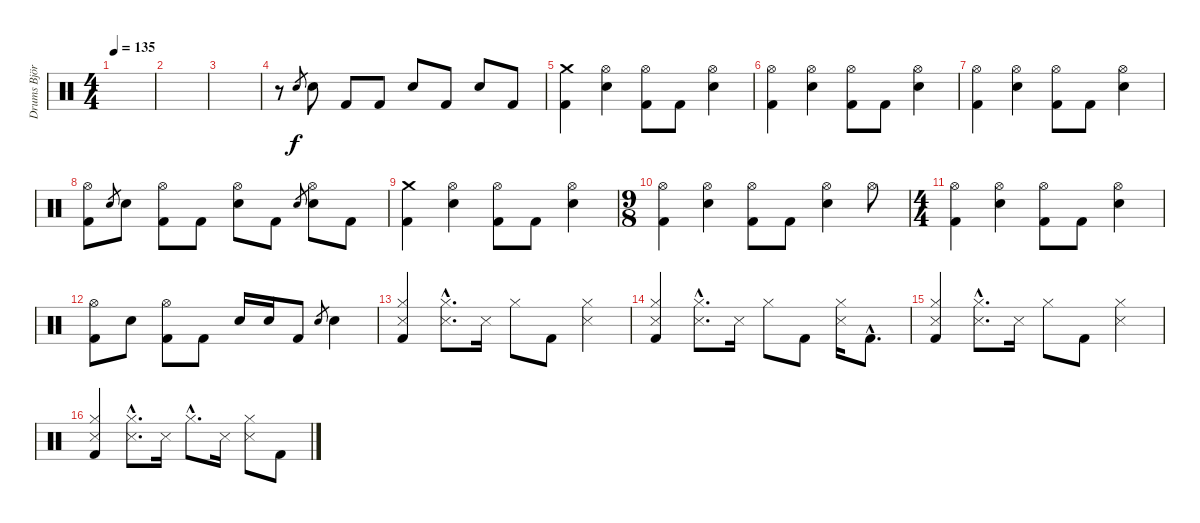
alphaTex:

\track ("Drums Björn Fryklund" "Drums Björ") {instrument percussion}
\staff {score}
\articulation defaults
\ts (4 4)
\tempo 135
\clef neutral
\ks c
|
|
|
r.8 "Electric Snare (hit)".8{gr} "Electric Snare (hit)".8 "Kick (hit) 2".8 "Kick (hit) 2".8 "Electric Snare (hit)".8 "Kick (hit) 2".8 "Electric Snare (hit)".8 "Kick (hit) 2".8 |
("Crash medium (hit)" "Kick (hit) 2").4 ("Hi-Hat (open)" "Electric Snare (hit)").4 ("Hi-Hat (open)" "Kick (hit) 2").8 "Kick (hit) 2".8 ("Hi-Hat (open)" "Electric Snare (hit)").4 |
("Hi-Hat (open)" "Kick (hit) 2").4 ("Hi-Hat (open)" "Electric Snare (hit)").4 ("Hi-Hat (open)" "Kick (hit) 2").8 "Kick (hit) 2".8 ("Hi-Hat (open)" "Electric Snare (hit)").4 |
("Hi-Hat (open)" "Kick (hit) 2").4 ("Hi-Hat (open)" "Electric Snare (hit)").4 ("Hi-Hat (open)" "Kick (hit) 2").8 "Kick (hit) 2".8 ("Hi-Hat (open)" "Electric Snare (hit)").4 |
("Hi-Hat (open)" "Kick (hit) 2").8 "Electric Snare (hit)".8{gr} "Electric Snare (hit)".8 ("Hi-Hat (open)" "Kick (hit) 2").8 "Kick (hit) 2".8 ("Hi-Hat (open)" "Electric Snare (hit)").8 "Kick (hit) 2".8 "Electric Snare (hit)".8{gr} ("Hi-Hat (open)" "Electric Snare (hit)").8 "Kick (hit) 2".8 |
("Crash medium (hit)" "Kick (hit) 2").4 ("Hi-Hat (open)" "Electric Snare (hit)").4 ("Hi-Hat (open)" "Kick (hit) 2").8 "Kick (hit) 2".8 ("Hi-Hat (open)" "Electric Snare (hit)").4 |
\ts (9 8)
("Hi-Hat (open)" "Kick (hit) 2").4 ("Hi-Hat (open)" "Electric Snare (hit)").4 ("Hi-Hat (open)" "Kick (hit) 2").8 "Kick (hit) 2".8 ("Hi-Hat (open)" "Electric Snare (hit)").4 "Hi-Hat (open)".8 |
\ts (4 4)
("Hi-Hat (open)" "Kick (hit) 2").4 ("Hi-Hat (open)" "Electric Snare (hit)").4 ("Hi-Hat (open)" "Kick (hit) 2").8 "Kick (hit) 2".8 ("Hi-Hat (open)" "Electric Snare (hit)").4 |
("Hi-Hat (open)" "Kick (hit) 2").8 "Electric Snare (hit)".8 ("Hi-Hat (open)" "Kick (hit) 2").8 "Kick (hit) 2".8 "Electric Snare (hit)".16 "Electric Snare (hit)".16 "Kick (hit) 2".8 "Electric Snare (hit)".8{gr} "Electric Snare (hit)".4 |
("Hi-Hat (closed)" "Snare (side stick) 3" "Kick (hit) 2").4 ("Hi-Hat (closed)"{hac} "Snare (side stick) 3"{hac}).8{d} "Snare (side stick) 3".16 "Hi-Hat (closed)".8 "Kick (hit) 2".8 ("Hi-Hat (closed)" "Snare (side stick) 3").4 |
("Hi-Hat (closed)" "Snare (side stick) 3" "Kick (hit) 2").4 ("Hi-Hat (closed)"{hac} "Snare (side stick) 3"{hac}).8{d} "Snare (side stick) 3".16 "Hi-Hat (closed)".8 "Kick (hit) 2".8 ("Hi-Hat (closed)" "Snare (side stick) 3").16 "Kick (hit) 2"{hac}.8{d} |
("Hi-Hat (closed)" "Snare (side stick) 3" "Kick (hit) 2").4 ("Hi-Hat (closed)"{hac} "Snare (side stick) 3"{hac}).8{d} "Snare (side stick) 3".16 "Hi-Hat (closed)".8 "Kick (hit) 2".8 ("Hi-Hat (closed)" "Snare (side stick) 3").4 |
("Hi-Hat (closed)" "Snare (side stick) 3" "Kick (hit) 2").4 ("Hi-Hat (closed)"{hac} "Snare (side stick) 3"{hac}).8{d} "Snare (side stick) 3".16 "Hi-Hat (closed)"{hac}.8{d} "Snare (side stick) 3".16 ("Hi-Hat (closed)" "Snare (side stick) 3").8 "Kick (hit) 2".8
